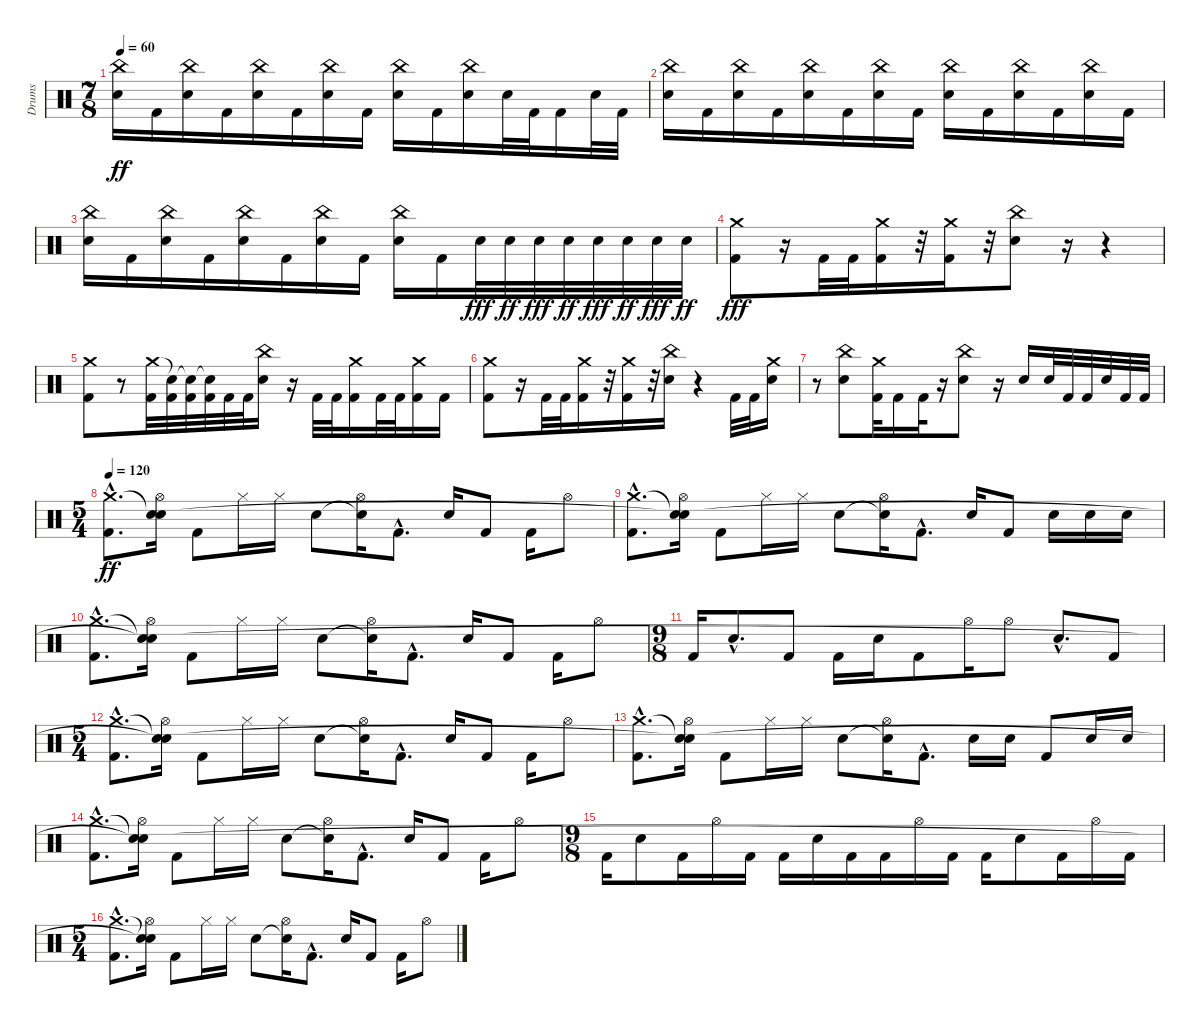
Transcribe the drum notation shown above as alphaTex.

\track ("Drums" "Drums") {instrument percussion}
\staff {score}
\articulation defaults
\ts (7 8)
\tempo 60
\clef neutral
\ks c
("China (hit)" "Snare (hit) 2").16{dy ff} "Kick (hit) 2".16 ("China (hit)" "Snare (hit) 2").16 "Kick (hit) 2".16 ("China (hit)" "Snare (hit) 2").16 "Kick (hit) 2".16 ("China (hit)" "Snare (hit) 2").16 "Kick (hit) 2".16 ("China (hit)" "Snare (hit) 2").16 "Kick (hit) 2".16 ("China (hit)" "Snare (hit) 2").16 "Snare (hit) 2".32 "Kick (hit) 2".32 "Kick (hit) 2".16 "Snare (hit) 2".32 "Kick (hit) 2".32 |
("China (hit)" "Snare (hit) 2").16 "Kick (hit) 2".16 ("China (hit)" "Snare (hit) 2").16 "Kick (hit) 2".16 ("China (hit)" "Snare (hit) 2").16 "Kick (hit) 2".16 ("China (hit)" "Snare (hit) 2").16 "Kick (hit) 2".16 ("China (hit)" "Snare (hit) 2").16 "Kick (hit) 2".16 ("China (hit)" "Snare (hit) 2").16 "Kick (hit) 2".16 ("China (hit)" "Snare (hit) 2").16 "Kick (hit) 2".16 |
("China (hit)" "Snare (hit) 2").16 "Kick (hit) 2".16 ("China (hit)" "Snare (hit) 2").16 "Kick (hit) 2".16 ("China (hit)" "Snare (hit) 2").16 "Kick (hit) 2".16 ("China (hit)" "Snare (hit) 2").16 "Kick (hit) 2".16 ("China (hit)" "Snare (hit) 2").16 "Kick (hit) 2".16 "Snare (hit) 2".32{dy fff} "Snare (hit) 2".32{dy ff} "Snare (hit) 2".32{dy fff} "Snare (hit) 2".32{dy ff} "Snare (hit) 2".32{dy fff} "Snare (hit) 2".32{dy ff} "Snare (hit) 2".32{dy fff} "Snare (hit) 2".32{dy ff} |
("Crash medium (hit)" "Kick (hit) 2").8{dy fff} r.16 "Kick (hit) 2".32 "Kick (hit) 2".32 ("Crash medium (hit)" "Kick (hit) 2").16 r.32 ("Crash medium (hit)" "Kick (hit) 2").16 r.32 ("China (hit)" "Snare (hit) 2").8 r.16 r.4 |
("Crash medium (hit)" "Kick (hit) 2").8 r.8 ("Crash medium (hit)" "Kick (hit) 2").32 ("Snare (hit)"{t} "Kick (hit) 2").32 ("Snare (hit)"{t} "Kick (hit) 2").32 ("Snare (hit)"{t} "Kick (hit) 2").32 "Kick (hit) 2".32 "Kick (hit) 2".32 ("China (hit)" "Snare (hit) 2").16 r.16 "Kick (hit) 2".32 "Kick (hit) 2".32 ("Crash medium (hit)" "Kick (hit) 2").16 "Kick (hit) 2".32 "Kick (hit) 2".32 ("Crash medium (hit)" "Kick (hit) 2").16 "Kick (hit) 2".16 |
("Crash medium (hit)" "Kick (hit) 2").8 r.16 "Kick (hit) 2".32 "Kick (hit) 2".32 ("Crash medium (hit)" "Kick (hit) 2").16 r.32 ("Crash medium (hit)" "Kick (hit) 2").16 r.32 ("China (hit)" "Snare (hit) 2").16 r.4 "Kick (hit) 2".32 "Kick (hit) 2".32 ("Crash medium (hit)" "Snare (hit) 2").16 |
r.8 ("China (hit)" "Snare (hit) 2").8 ("Crash medium (hit)" "Kick (hit) 2").32 "Kick (hit) 2".16 "Kick (hit) 2".32 r.16 ("China (hit)" "Snare (hit) 2").8 r.16 "Snare (hit) 2".16 "Snare (hit) 2".32 "Kick (hit) 2".32 "Kick (hit) 2".32 "Snare (hit) 2".32 "Kick (hit) 2".32 "Kick (hit) 2".32 |
\ts (5 4)
\tempo 120
("Crash medium (hit)"{hac} "Kick (hit) 2"{hac}).8{d dy ff} ("Snare (hit)"{t} "Hi-Hat (open)" "Snare (hit)").16 "Kick (hit) 2".8 "Hi-Hat (closed)".16 "Hi-Hat (closed)".16 "Snare (hit) 2".8 ("Snare (hit)"{t} "Hi-Hat (open)").16 "Kick (hit) 2"{hac}.8{d} "Snare (hit) 2".16 "Kick (hit) 2".8 "Kick (hit) 2".16 "Hi-Hat (open)".8 |
("Crash medium (hit)"{hac} "Kick (hit) 2"{hac}).8{d} ("Snare (hit)"{t} "Hi-Hat (open)" "Snare (hit)"{t}).16 "Kick (hit) 2".8 "Hi-Hat (closed)".16 "Hi-Hat (closed)".16 "Snare (hit) 2".8 ("Snare (hit)"{t} "Hi-Hat (open)").16 "Kick (hit) 2"{hac}.8{d} "Snare (hit) 2".16 "Kick (hit) 2".8 "Snare (hit) 2".16 "Snare (hit) 2".16 "Snare (hit) 2".16 |
("Crash medium (hit)"{hac} "Kick (hit) 2"{hac}).8{d} ("Snare (hit)"{t} "Hi-Hat (open)" "Snare (hit)"{t}).16 "Kick (hit) 2".8 "Hi-Hat (closed)".16 "Hi-Hat (closed)".16 "Snare (hit) 2".8 ("Snare (hit)"{t} "Hi-Hat (open)").16 "Kick (hit) 2"{hac}.8{d} "Snare (hit) 2".16 "Kick (hit) 2".8 "Kick (hit) 2".16 "Hi-Hat (open)".8 |
\ts (9 8)
"Kick (hit) 2".16 "Snare (hit) 2"{hac}.8{d} "Kick (hit) 2".8 "Kick (hit) 2".16 "Snare (hit) 2".16 "Kick (hit) 2".8 "Hi-Hat (open)".16 "Hi-Hat (open)".8 "Snare (hit) 2"{hac}.8{d} "Kick (hit) 2".8 |
\ts (5 4)
("Crash medium (hit)"{hac} "Kick (hit) 2"{hac}).8{d} ("Snare (hit)"{t} "Hi-Hat (open)" "Snare (hit)"{t}).16 "Kick (hit) 2".8 "Hi-Hat (closed)".16 "Hi-Hat (closed)".16 "Snare (hit) 2".8 ("Snare (hit)"{t} "Hi-Hat (open)").16 "Kick (hit) 2"{hac}.8{d} "Snare (hit) 2".16 "Kick (hit) 2".8 "Kick (hit) 2".16 "Hi-Hat (open)".8 |
("Crash medium (hit)"{hac} "Kick (hit) 2"{hac}).8{d} ("Snare (hit)"{t} "Hi-Hat (open)" "Snare (hit)"{t}).16 "Kick (hit) 2".8 "Hi-Hat (closed)".16 "Hi-Hat (closed)".16 "Snare (hit) 2".8 ("Snare (hit)"{t} "Hi-Hat (open)").16 "Kick (hit) 2"{hac}.8{d} "Snare (hit) 2".16 "Snare (hit) 2".16 "Kick (hit) 2".8 "Snare (hit) 2".16 "Snare (hit) 2".16 |
("Crash medium (hit)"{hac} "Kick (hit) 2"{hac}).8{d} ("Snare (hit)"{t} "Hi-Hat (open)" "Snare (hit)"{t}).16 "Kick (hit) 2".8 "Hi-Hat (closed)".16 "Hi-Hat (closed)".16 "Snare (hit) 2".8 ("Snare (hit)"{t} "Hi-Hat (open)").16 "Kick (hit) 2"{hac}.8{d} "Snare (hit) 2".16 "Kick (hit) 2".8 "Kick (hit) 2".16 "Hi-Hat (open)".8 |
\ts (9 8)
"Kick (hit) 2".16 "Snare (hit) 2".8 "Kick (hit) 2".16 "Hi-Hat (open)".16 "Kick (hit) 2".16 "Kick (hit) 2".16 "Snare (hit) 2".16 "Kick (hit) 2".16 "Kick (hit) 2".16 "Hi-Hat (open)".16 "Kick (hit) 2".16 "Kick (hit) 2".16 "Snare (hit) 2".8 "Kick (hit) 2".16 "Hi-Hat (open)".16 "Kick (hit) 2".16 |
\ts (5 4)
("Crash medium (hit)"{hac} "Kick (hit) 2"{hac}).8{d} ("Snare (hit)"{t} "Hi-Hat (open)" "Snare (hit)"{t}).16 "Kick (hit) 2".8 "Hi-Hat (closed)".16 "Hi-Hat (closed)".16 "Snare (hit) 2".8 ("Snare (hit)"{t} "Hi-Hat (open)").16 "Kick (hit) 2"{hac}.8{d} "Snare (hit) 2".16 "Kick (hit) 2".8 "Kick (hit) 2".16 "Hi-Hat (open)".8
